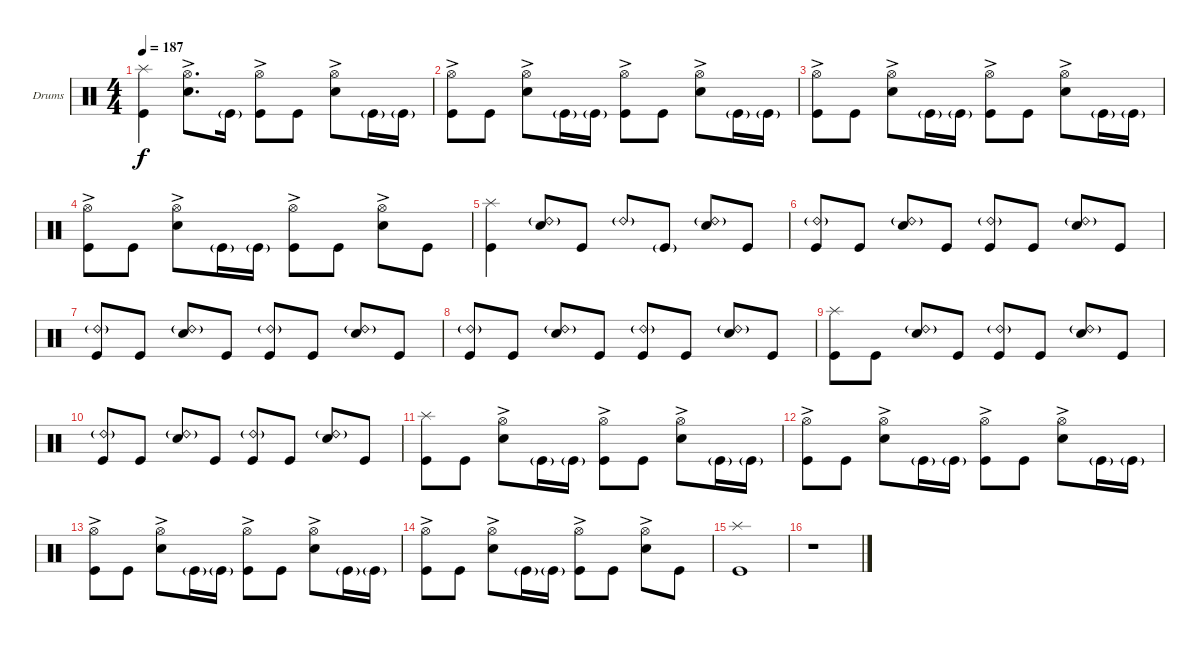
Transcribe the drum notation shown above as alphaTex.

\defaultSystemsLayout 4
\bracketExtendMode groupsimilarinstruments
\firstSystemTrackNameOrientation horizontal
\otherSystemsTrackNameOrientation horizontal
\track ("Drumkit" "Drums") {instrument percussion}
\staff {score}
\articulation defaults
\ts (4 4)
\tempo 187
\clef neutral
\ks c
("Kick (hit)" "Splash (hit)").4{dy f} ("Snare (hit) 2" "Hi-Hat (open)"{ac}).8{d} "Kick (hit)"{g}.16 ("Kick (hit)" "Hi-Hat (open)"{ac}).8 "Kick (hit)".8 ("Snare (hit) 2" "Hi-Hat (open)"{ac}).8 "Kick (hit)"{g}.16 "Kick (hit)"{g}.16 |
("Kick (hit)" "Hi-Hat (open)"{ac}).8 "Kick (hit)".8 ("Snare (hit) 2" "Hi-Hat (open)"{ac}).8 "Kick (hit)"{g}.16 "Kick (hit)"{g}.16 ("Kick (hit)" "Hi-Hat (open)"{ac}).8 "Kick (hit)".8 ("Snare (hit) 2" "Hi-Hat (open)"{ac}).8 "Kick (hit)"{g}.16 "Kick (hit)"{g}.16 |
("Kick (hit)" "Hi-Hat (open)"{ac}).8 "Kick (hit)".8 ("Snare (hit) 2" "Hi-Hat (open)"{ac}).8 "Kick (hit)"{g}.16 "Kick (hit)"{g}.16 ("Kick (hit)" "Hi-Hat (open)"{ac}).8 "Kick (hit)".8 ("Snare (hit) 2" "Hi-Hat (open)"{ac}).8 "Kick (hit)"{g}.16 "Kick (hit)"{g}.16 |
("Kick (hit)" "Hi-Hat (open)"{ac}).8 "Kick (hit)".8 ("Snare (hit) 2" "Hi-Hat (open)"{ac}).8 "Kick (hit)"{g}.16 "Kick (hit)"{g}.16 ("Kick (hit)" "Hi-Hat (open)"{ac}).8 "Kick (hit)".8 ("Snare (hit) 2" "Hi-Hat (open)"{ac}).8 "Kick (hit)".8 |
("Kick (hit)" "Splash (hit)").4 ("Snare (hit) 2" "Ride (bell) 2"{g}).8 "Kick (hit)".8 "Ride (bell) 2"{g}.8 "Kick (hit)"{g}.8 ("Snare (hit) 2" "Ride (bell) 2"{g}).8 "Kick (hit)".8 |
("Kick (hit)" "Ride (bell) 2"{g}).8 "Kick (hit)".8 ("Snare (hit) 2" "Ride (bell) 2"{g}).8 "Kick (hit)".8 ("Kick (hit)" "Ride (bell) 2"{g}).8 "Kick (hit)".8 ("Snare (hit) 2" "Ride (bell) 2"{g}).8 "Kick (hit)".8 |
("Kick (hit)" "Ride (bell) 2"{g}).8 "Kick (hit)".8 ("Snare (hit) 2" "Ride (bell) 2"{g}).8 "Kick (hit)".8 ("Kick (hit)" "Ride (bell) 2"{g}).8 "Kick (hit)".8 ("Snare (hit) 2" "Ride (bell) 2"{g}).8 "Kick (hit)".8 |
("Kick (hit)" "Ride (bell) 2"{g}).8 "Kick (hit)".8 ("Snare (hit) 2" "Ride (bell) 2"{g}).8 "Kick (hit)".8 ("Kick (hit)" "Ride (bell) 2"{g}).8 "Kick (hit)".8 ("Snare (hit) 2" "Ride (bell) 2"{g}).8 "Kick (hit)".8 |
("Kick (hit)" "Splash (hit)").8 "Kick (hit)".8 ("Snare (hit) 2" "Ride (bell) 2"{g}).8 "Kick (hit)".8 ("Kick (hit)" "Ride (bell) 2"{g}).8 "Kick (hit)".8 ("Snare (hit) 2" "Ride (bell) 2"{g}).8 "Kick (hit)".8 |
("Kick (hit)" "Ride (bell) 2"{g}).8 "Kick (hit)".8 ("Snare (hit) 2" "Ride (bell) 2"{g}).8 "Kick (hit)".8 ("Kick (hit)" "Ride (bell) 2"{g}).8 "Kick (hit)".8 ("Snare (hit) 2" "Ride (bell) 2"{g}).8 "Kick (hit)".8 |
("Kick (hit)" "Splash (hit)").8 "Kick (hit)".8 ("Snare (hit) 2" "Hi-Hat (open)"{ac}).8 "Kick (hit)"{g}.16 "Kick (hit)"{g}.16 ("Kick (hit)" "Hi-Hat (open)"{ac}).8 "Kick (hit)".8 ("Snare (hit) 2" "Hi-Hat (open)"{ac}).8 "Kick (hit)"{g}.16 "Kick (hit)"{g}.16 |
("Kick (hit)" "Hi-Hat (open)"{ac}).8 "Kick (hit)".8 ("Snare (hit) 2" "Hi-Hat (open)"{ac}).8 "Kick (hit)"{g}.16 "Kick (hit)"{g}.16 ("Kick (hit)" "Hi-Hat (open)"{ac}).8 "Kick (hit)".8 ("Snare (hit) 2" "Hi-Hat (open)"{ac}).8 "Kick (hit)"{g}.16 "Kick (hit)"{g}.16 |
("Kick (hit)" "Hi-Hat (open)"{ac}).8 "Kick (hit)".8 ("Snare (hit) 2" "Hi-Hat (open)"{ac}).8 "Kick (hit)"{g}.16 "Kick (hit)"{g}.16 ("Kick (hit)" "Hi-Hat (open)"{ac}).8 "Kick (hit)".8 ("Snare (hit) 2" "Hi-Hat (open)"{ac}).8 "Kick (hit)"{g}.16 "Kick (hit)"{g}.16 |
("Kick (hit)" "Hi-Hat (open)"{ac}).8 "Kick (hit)".8 ("Snare (hit) 2" "Hi-Hat (open)"{ac}).8 "Kick (hit)"{g}.16 "Kick (hit)"{g}.16 ("Kick (hit)" "Hi-Hat (open)"{ac}).8 "Kick (hit)".8 ("Snare (hit) 2" "Hi-Hat (open)"{ac}).8 "Kick (hit)".8 |
("Kick (hit)" "Splash (hit)").1 |
r.1
